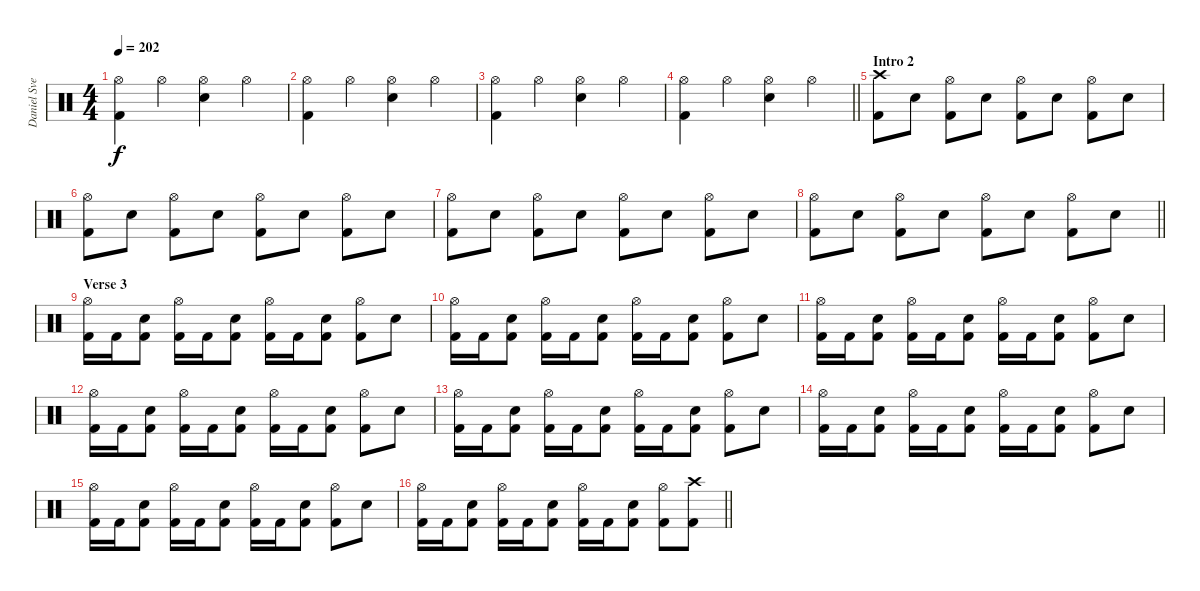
\track ("Daniel Svensson" "Daniel Sve") {instrument percussion}
\staff {score}
\articulation defaults
\ts (4 4)
\tempo 202
\clef neutral
\ks c
("Hi-Hat (open)" "Kick (hit) 2").4{dy f} "Hi-Hat (open)".4 ("Hi-Hat (open)" "Electric Snare (hit)").4 "Hi-Hat (open)".4 |
("Hi-Hat (open)" "Kick (hit) 2").4 "Hi-Hat (open)".4 ("Hi-Hat (open)" "Electric Snare (hit)").4 "Hi-Hat (open)".4 |
("Hi-Hat (open)" "Kick (hit) 2").4 "Hi-Hat (open)".4 ("Hi-Hat (open)" "Electric Snare (hit)").4 "Hi-Hat (open)".4 |
\barLineRight lightlight
("Hi-Hat (open)" "Kick (hit) 2").4 "Hi-Hat (open)".4 ("Hi-Hat (open)" "Electric Snare (hit)").4 "Hi-Hat (open)".4 |
\section ("" "Intro 2")
("Crash high (hit)" "Kick (hit) 2").8 "Electric Snare (hit)".8 ("Hi-Hat (open)" "Kick (hit) 2").8 "Electric Snare (hit)".8 ("Hi-Hat (open)" "Kick (hit) 2").8 "Electric Snare (hit)".8 ("Hi-Hat (open)" "Kick (hit) 2").8 "Electric Snare (hit)".8 |
("Hi-Hat (open)" "Kick (hit) 2").8 "Electric Snare (hit)".8 ("Hi-Hat (open)" "Kick (hit) 2").8 "Electric Snare (hit)".8 ("Hi-Hat (open)" "Kick (hit) 2").8 "Electric Snare (hit)".8 ("Hi-Hat (open)" "Kick (hit) 2").8 "Electric Snare (hit)".8 |
("Hi-Hat (open)" "Kick (hit) 2").8 "Electric Snare (hit)".8 ("Hi-Hat (open)" "Kick (hit) 2").8 "Electric Snare (hit)".8 ("Hi-Hat (open)" "Kick (hit) 2").8 "Electric Snare (hit)".8 ("Hi-Hat (open)" "Kick (hit) 2").8 "Electric Snare (hit)".8 |
\barLineRight lightlight
("Hi-Hat (open)" "Kick (hit) 2").8 "Electric Snare (hit)".8 ("Hi-Hat (open)" "Kick (hit) 2").8 "Electric Snare (hit)".8 ("Hi-Hat (open)" "Kick (hit) 2").8 "Electric Snare (hit)".8 ("Hi-Hat (open)" "Kick (hit) 2").8 "Electric Snare (hit)".8 |
\section ("" "Verse 3")
("Hi-Hat (open)" "Kick (hit) 2").16 "Kick (hit) 2".16 ("Electric Snare (hit)" "Kick (hit) 2").8 ("Hi-Hat (open)" "Kick (hit) 2").16 "Kick (hit) 2".16 ("Electric Snare (hit)" "Kick (hit) 2").8 ("Hi-Hat (open)" "Kick (hit) 2").16 "Kick (hit) 2".16 ("Electric Snare (hit)" "Kick (hit) 2").8 ("Hi-Hat (open)" "Kick (hit) 2").8 "Electric Snare (hit)".8 |
("Hi-Hat (open)" "Kick (hit) 2").16 "Kick (hit) 2".16 ("Electric Snare (hit)" "Kick (hit) 2").8 ("Hi-Hat (open)" "Kick (hit) 2").16 "Kick (hit) 2".16 ("Electric Snare (hit)" "Kick (hit) 2").8 ("Hi-Hat (open)" "Kick (hit) 2").16 "Kick (hit) 2".16 ("Electric Snare (hit)" "Kick (hit) 2").8 ("Hi-Hat (open)" "Kick (hit) 2").8 "Electric Snare (hit)".8 |
("Hi-Hat (open)" "Kick (hit) 2").16 "Kick (hit) 2".16 ("Electric Snare (hit)" "Kick (hit) 2").8 ("Hi-Hat (open)" "Kick (hit) 2").16 "Kick (hit) 2".16 ("Electric Snare (hit)" "Kick (hit) 2").8 ("Hi-Hat (open)" "Kick (hit) 2").16 "Kick (hit) 2".16 ("Electric Snare (hit)" "Kick (hit) 2").8 ("Hi-Hat (open)" "Kick (hit) 2").8 "Electric Snare (hit)".8 |
("Hi-Hat (open)" "Kick (hit) 2").16 "Kick (hit) 2".16 ("Electric Snare (hit)" "Kick (hit) 2").8 ("Hi-Hat (open)" "Kick (hit) 2").16 "Kick (hit) 2".16 ("Electric Snare (hit)" "Kick (hit) 2").8 ("Hi-Hat (open)" "Kick (hit) 2").16 "Kick (hit) 2".16 ("Electric Snare (hit)" "Kick (hit) 2").8 ("Hi-Hat (open)" "Kick (hit) 2").8 "Electric Snare (hit)".8 |
("Hi-Hat (open)" "Kick (hit) 2").16 "Kick (hit) 2".16 ("Electric Snare (hit)" "Kick (hit) 2").8 ("Hi-Hat (open)" "Kick (hit) 2").16 "Kick (hit) 2".16 ("Electric Snare (hit)" "Kick (hit) 2").8 ("Hi-Hat (open)" "Kick (hit) 2").16 "Kick (hit) 2".16 ("Electric Snare (hit)" "Kick (hit) 2").8 ("Hi-Hat (open)" "Kick (hit) 2").8 "Electric Snare (hit)".8 |
("Hi-Hat (open)" "Kick (hit) 2").16 "Kick (hit) 2".16 ("Electric Snare (hit)" "Kick (hit) 2").8 ("Hi-Hat (open)" "Kick (hit) 2").16 "Kick (hit) 2".16 ("Electric Snare (hit)" "Kick (hit) 2").8 ("Hi-Hat (open)" "Kick (hit) 2").16 "Kick (hit) 2".16 ("Electric Snare (hit)" "Kick (hit) 2").8 ("Hi-Hat (open)" "Kick (hit) 2").8 "Electric Snare (hit)".8 |
("Hi-Hat (open)" "Kick (hit) 2").16 "Kick (hit) 2".16 ("Electric Snare (hit)" "Kick (hit) 2").8 ("Hi-Hat (open)" "Kick (hit) 2").16 "Kick (hit) 2".16 ("Electric Snare (hit)" "Kick (hit) 2").8 ("Hi-Hat (open)" "Kick (hit) 2").16 "Kick (hit) 2".16 ("Electric Snare (hit)" "Kick (hit) 2").8 ("Hi-Hat (open)" "Kick (hit) 2").8 "Electric Snare (hit)".8 |
\barLineRight lightlight
("Hi-Hat (open)" "Kick (hit) 2").16 "Kick (hit) 2".16 ("Electric Snare (hit)" "Kick (hit) 2").8 ("Hi-Hat (open)" "Kick (hit) 2").16 "Kick (hit) 2".16 ("Electric Snare (hit)" "Kick (hit) 2").8 ("Hi-Hat (open)" "Kick (hit) 2").16 "Kick (hit) 2".16 ("Electric Snare (hit)" "Kick (hit) 2").8 ("Hi-Hat (open)" "Kick (hit) 2").8 ("Crash high (hit)" "Kick (hit) 2").8
